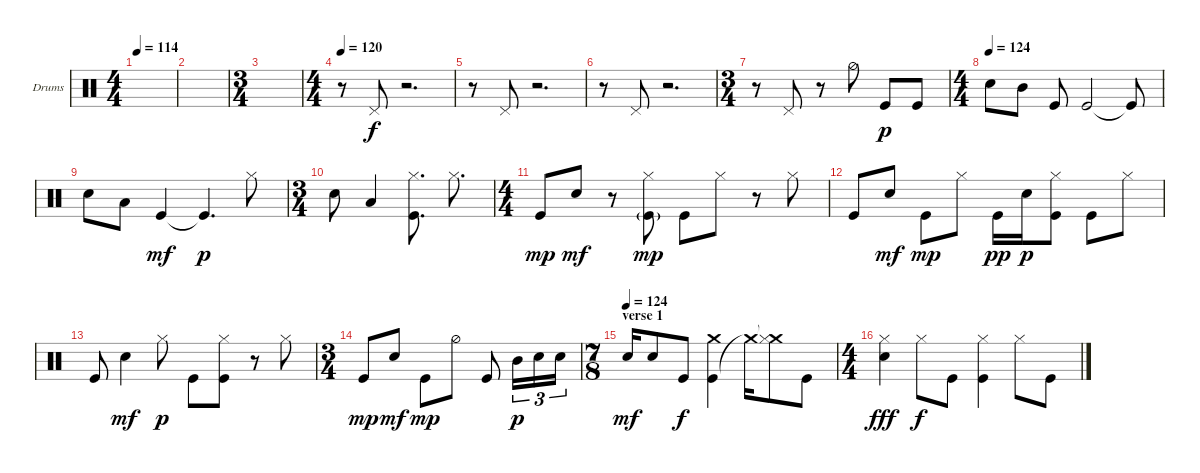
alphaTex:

\bracketExtendMode groupsimilarinstruments
\firstSystemTrackNameOrientation horizontal
\otherSystemsTrackNameOrientation horizontal
\track ("drums - john hinch" "Drums") {instrument percussion}
\staff {score}
\articulation defaults
\ts (4 4)
\tempo 114
\clef neutral
\scale
0.391473
\ks c
|
\scale
0.217054 |
\ts (3 4)
\scale
0.391473 |
\ts (4 4)
\tempo 120
\scale
0.391473 r.8 "Pedal Hi-Hat (hit)".8 r.2{d} |
\scale
0.217054 r.8 "Pedal Hi-Hat (hit)".8 r.2{d} |
\scale
0.413796
\scale
0.333333 r.8 "Pedal Hi-Hat (hit)".8 r.2{d} |
\ts (3 4)
\scale
0.334782
\scale
0.333333 r.8 "Pedal Hi-Hat (hit)".8 r.8 "Hi-Hat (half)".8 "Kick (hit)".8{dy p} "Kick (hit)".8 |
\ts (4 4)
\scale
0.244545
\tempo 124
\scale
0.333333 "Snare (hit) 2".8 "Mid Tom (hit)".8 "Kick (hit)".8 "Kick (hit)".2 "Kick (hit)"{t}.8 |
\scale
0.217054 "Snare (hit) 2".8 "Low Tom (hit)".8 "Kick (hit)".4{dy mf} "Kick (hit)"{t}.4{d dy p} "Hi-Hat (closed)".8 |
\ts (3 4)
\scale
0.391473 "Snare (hit) 2".8 "Low Tom (hit)".4 ("Kick (hit)" "Hi-Hat (closed)").8{d} "Hi-Hat (closed)".8{d} |
\ts (4 4)
\scale
0.391473 "Kick (hit)".8{dy mp} "Snare (hit) 2".8{dy mf} r.8 ("Hi-Hat (closed)" "Kick (hit)"{g}).8{dy mp} "Kick (hit)".8 "Hi-Hat (closed)".8 r.8 "Hi-Hat (closed)".8 |
\scale
0.333333 "Kick (hit)".8 "Snare (hit) 2".8{dy mf} "Kick (hit)".8{dy mp} "Hi-Hat (closed)".8 "Kick (hit)".16{dy pp} "Snare (hit) 2".16{dy p} ("Hi-Hat (closed)" "Kick (hit)").8 "Kick (hit)".8 "Hi-Hat (closed)".8 |
\scale
0.333333 "Kick (hit)".8 "Snare (hit) 2".4{dy mf} "Hi-Hat (closed)".8{dy p} "Kick (hit)".8 ("Kick (hit)" "Hi-Hat (closed)").8 r.8 "Hi-Hat (closed)".8 |
\ts (3 4)
\scale
0.333333 "Kick (hit)".8{dy mp} "Snare (hit) 2".8{dy mf} "Kick (hit)".8{dy mp} "Hi-Hat (half)".8 "Kick (hit)".8 "Mid Tom (hit)".16{tu (3 2) dy p} "Snare (hit) 2".16{tu (3 2)} "Snare (hit) 2".16{tu (3 2)} |
\ts (7 8)
\section ("" "verse 1")
\tempo 124
\scale
0.391473 "Snare (hit) 2".16{dy mf} "Snare (hit) 2".8 "Kick (hit)".8{dy f} ("Kick (hit)" "Crash medium (hit)").4 "Crash medium (hit)"{t}.16 ("Crash medium (hit)"{t} "Hi-Hat (closed)").8 "Kick (hit)".8 |
\ts (4 4)
\scale
0.391473 ("Snare (hit) 2" "Hi-Hat (closed)").4{dy fff} "Hi-Hat (closed)".8{dy f} "Kick (hit)".8 ("Kick (hit)" "Hi-Hat (closed)").4 "Hi-Hat (closed)".8 "Kick (hit)".8
